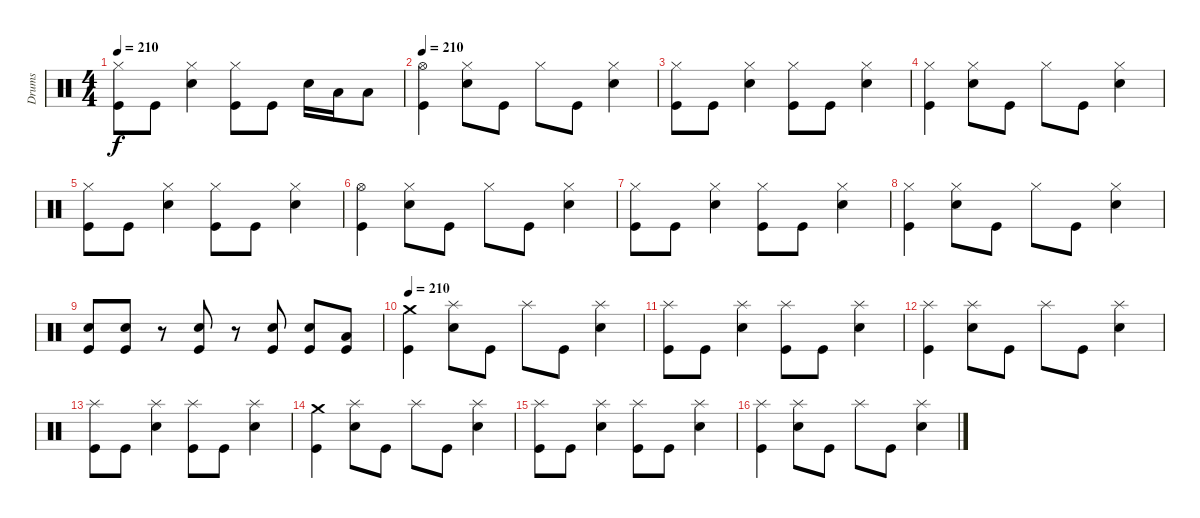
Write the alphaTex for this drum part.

\track ("Drums" "Drums") {instrument percussion}
\staff {score}
\articulation defaults
\ts (4 4)
\tempo 210
\clef neutral
\ks c
("Hi-Hat (closed)" "Kick (hit)").8{dy f} "Kick (hit)".8 ("Hi-Hat (closed)" "Electric Snare (hit)").4 ("Hi-Hat (closed)" "Kick (hit)").8 "Kick (hit)".8 "Electric Snare (hit)".16 "Low Tom (hit)".16 "Low Tom (hit)".8 |
\tempo 210
("Hi-Hat (open)" "Kick (hit)").4 ("Hi-Hat (closed)" "Electric Snare (hit)").8 "Kick (hit)".8 "Hi-Hat (closed)".8 "Kick (hit)".8 ("Hi-Hat (closed)" "Electric Snare (hit)").4 |
("Hi-Hat (closed)" "Kick (hit)").8 "Kick (hit)".8 ("Hi-Hat (closed)" "Electric Snare (hit)").4 ("Hi-Hat (closed)" "Kick (hit)").8 "Kick (hit)".8 ("Hi-Hat (closed)" "Electric Snare (hit)").4 |
("Hi-Hat (closed)" "Kick (hit)").4 ("Hi-Hat (closed)" "Electric Snare (hit)").8 "Kick (hit)".8 "Hi-Hat (closed)".8 "Kick (hit)".8 ("Hi-Hat (closed)" "Electric Snare (hit)").4 |
("Hi-Hat (closed)" "Kick (hit)").8 "Kick (hit)".8 ("Hi-Hat (closed)" "Electric Snare (hit)").4 ("Hi-Hat (closed)" "Kick (hit)").8 "Kick (hit)".8 ("Hi-Hat (closed)" "Electric Snare (hit)").4 |
("Hi-Hat (open)" "Kick (hit)").4 ("Hi-Hat (closed)" "Electric Snare (hit)").8 "Kick (hit)".8 "Hi-Hat (closed)".8 "Kick (hit)".8 ("Hi-Hat (closed)" "Electric Snare (hit)").4 |
("Hi-Hat (closed)" "Kick (hit)").8 "Kick (hit)".8 ("Hi-Hat (closed)" "Electric Snare (hit)").4 ("Hi-Hat (closed)" "Kick (hit)").8 "Kick (hit)".8 ("Hi-Hat (closed)" "Electric Snare (hit)").4 |
("Hi-Hat (closed)" "Kick (hit)").4 ("Hi-Hat (closed)" "Electric Snare (hit)").8 "Kick (hit)".8 "Hi-Hat (closed)".8 "Kick (hit)".8 ("Hi-Hat (closed)" "Electric Snare (hit)").4 |
("Electric Snare (hit)" "Kick (hit)").8 ("Electric Snare (hit)" "Kick (hit)").8 r.8 ("Electric Snare (hit)" "Kick (hit)").8 r.8 ("Electric Snare (hit)" "Kick (hit)").8 ("Electric Snare (hit)" "Kick (hit)").8 ("Low Tom (hit)" "Kick (hit)").8 |
\tempo 210
("Crash medium (hit)" "Kick (hit)").4 ("Splash (hit)" "Electric Snare (hit)").8 "Kick (hit)".8 "Splash (hit)".8 "Kick (hit)".8 ("Splash (hit)" "Electric Snare (hit)").4 |
("Splash (hit)" "Kick (hit)").8 "Kick (hit)".8 ("Splash (hit)" "Electric Snare (hit)").4 ("Splash (hit)" "Kick (hit)").8 "Kick (hit)".8 ("Splash (hit)" "Electric Snare (hit)").4 |
("Splash (hit)" "Kick (hit)").4 ("Splash (hit)" "Electric Snare (hit)").8 "Kick (hit)".8 "Splash (hit)".8 "Kick (hit)".8 ("Splash (hit)" "Electric Snare (hit)").4 |
("Splash (hit)" "Kick (hit)").8 "Kick (hit)".8 ("Splash (hit)" "Electric Snare (hit)").4 ("Splash (hit)" "Kick (hit)").8 "Kick (hit)".8 ("Splash (hit)" "Electric Snare (hit)").4 |
("Crash medium (hit)" "Kick (hit)").4 ("Splash (hit)" "Electric Snare (hit)").8 "Kick (hit)".8 "Splash (hit)".8 "Kick (hit)".8 ("Splash (hit)" "Electric Snare (hit)").4 |
("Splash (hit)" "Kick (hit)").8 "Kick (hit)".8 ("Splash (hit)" "Electric Snare (hit)").4 ("Splash (hit)" "Kick (hit)").8 "Kick (hit)".8 ("Splash (hit)" "Electric Snare (hit)").4 |
("Splash (hit)" "Kick (hit)").4 ("Splash (hit)" "Electric Snare (hit)").8 "Kick (hit)".8 "Splash (hit)".8 "Kick (hit)".8 ("Splash (hit)" "Electric Snare (hit)").4
